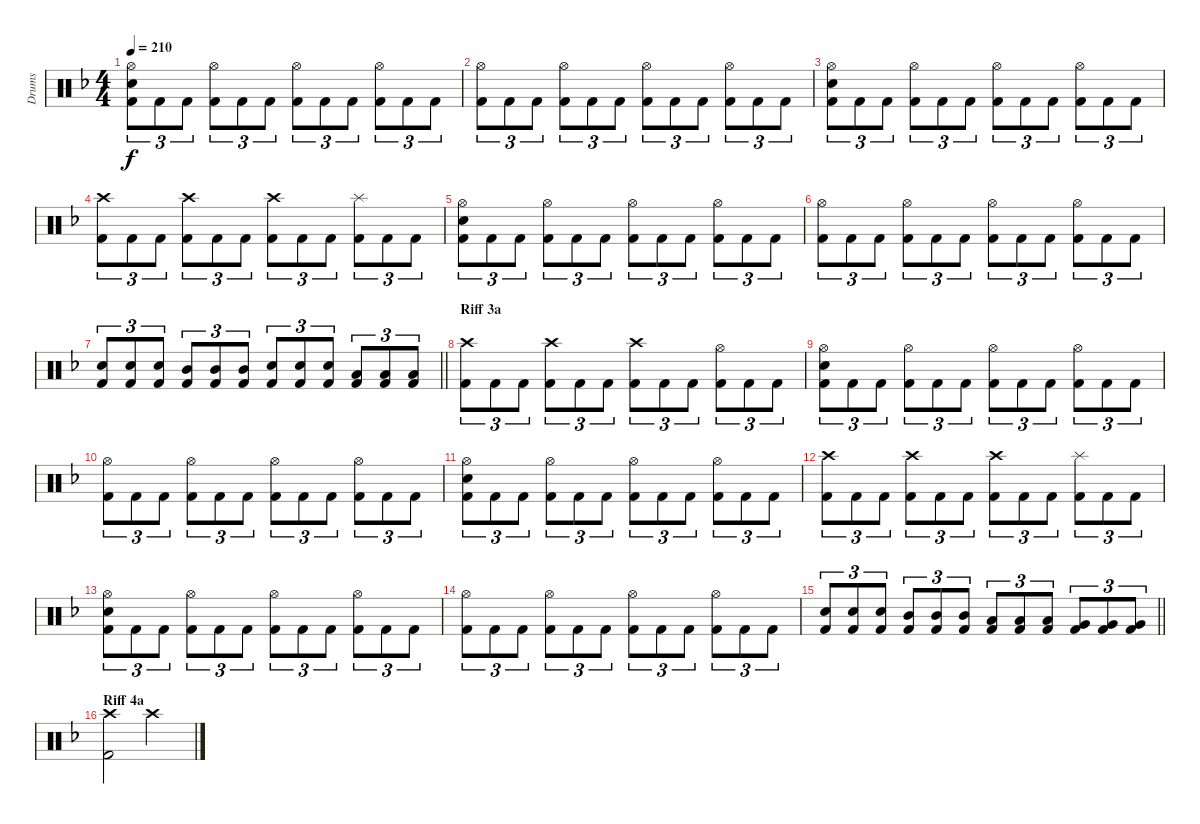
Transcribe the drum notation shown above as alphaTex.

\track ("Drums" "Drums") {instrument percussion}
\staff {score}
\articulation defaults
\ts (4 4)
\tempo 210
\clef neutral
\ks dminor
("Hi-Hat (open)" "Electric Snare (hit)" "Kick (hit) 2").8{tu (3 2) dy f} "Kick (hit) 2".8{tu (3 2)} "Kick (hit) 2".8{tu (3 2)} ("Hi-Hat (open)" "Kick (hit) 2").8{tu (3 2)} "Kick (hit) 2".8{tu (3 2)} "Kick (hit) 2".8{tu (3 2)} ("Hi-Hat (open)" "Kick (hit) 2").8{tu (3 2)} "Kick (hit) 2".8{tu (3 2)} "Kick (hit) 2".8{tu (3 2)} ("Hi-Hat (open)" "Kick (hit) 2").8{tu (3 2)} "Kick (hit) 2".8{tu (3 2)} "Kick (hit) 2".8{tu (3 2)} |
("Hi-Hat (open)" "Kick (hit) 2").8{tu (3 2)} "Kick (hit) 2".8{tu (3 2)} "Kick (hit) 2".8{tu (3 2)} ("Hi-Hat (open)" "Kick (hit) 2").8{tu (3 2)} "Kick (hit) 2".8{tu (3 2)} "Kick (hit) 2".8{tu (3 2)} ("Hi-Hat (open)" "Kick (hit) 2").8{tu (3 2)} "Kick (hit) 2".8{tu (3 2)} "Kick (hit) 2".8{tu (3 2)} ("Hi-Hat (open)" "Kick (hit) 2").8{tu (3 2)} "Kick (hit) 2".8{tu (3 2)} "Kick (hit) 2".8{tu (3 2)} |
("Hi-Hat (open)" "Electric Snare (hit)" "Kick (hit) 2").8{tu (3 2)} "Kick (hit) 2".8{tu (3 2)} "Kick (hit) 2".8{tu (3 2)} ("Hi-Hat (open)" "Kick (hit) 2").8{tu (3 2)} "Kick (hit) 2".8{tu (3 2)} "Kick (hit) 2".8{tu (3 2)} ("Hi-Hat (open)" "Kick (hit) 2").8{tu (3 2)} "Kick (hit) 2".8{tu (3 2)} "Kick (hit) 2".8{tu (3 2)} ("Hi-Hat (open)" "Kick (hit) 2").8{tu (3 2)} "Kick (hit) 2".8{tu (3 2)} "Kick (hit) 2".8{tu (3 2)} |
("Crash high (hit)" "Kick (hit) 2").8{tu (3 2)} "Kick (hit) 2".8{tu (3 2)} "Kick (hit) 2".8{tu (3 2)} ("Crash high (hit)" "Kick (hit) 2").8{tu (3 2)} "Kick (hit) 2".8{tu (3 2)} "Kick (hit) 2".8{tu (3 2)} ("Crash high (hit)" "Kick (hit) 2").8{tu (3 2)} "Kick (hit) 2".8{tu (3 2)} "Kick (hit) 2".8{tu (3 2)} ("Splash (hit)" "Kick (hit) 2").8{tu (3 2)} "Kick (hit) 2".8{tu (3 2)} "Kick (hit) 2".8{tu (3 2)} |
("Hi-Hat (open)" "Electric Snare (hit)" "Kick (hit) 2").8{tu (3 2)} "Kick (hit) 2".8{tu (3 2)} "Kick (hit) 2".8{tu (3 2)} ("Hi-Hat (open)" "Kick (hit) 2").8{tu (3 2)} "Kick (hit) 2".8{tu (3 2)} "Kick (hit) 2".8{tu (3 2)} ("Hi-Hat (open)" "Kick (hit) 2").8{tu (3 2)} "Kick (hit) 2".8{tu (3 2)} "Kick (hit) 2".8{tu (3 2)} ("Hi-Hat (open)" "Kick (hit) 2").8{tu (3 2)} "Kick (hit) 2".8{tu (3 2)} "Kick (hit) 2".8{tu (3 2)} |
("Hi-Hat (open)" "Kick (hit) 2").8{tu (3 2)} "Kick (hit) 2".8{tu (3 2)} "Kick (hit) 2".8{tu (3 2)} ("Hi-Hat (open)" "Kick (hit) 2").8{tu (3 2)} "Kick (hit) 2".8{tu (3 2)} "Kick (hit) 2".8{tu (3 2)} ("Hi-Hat (open)" "Kick (hit) 2").8{tu (3 2)} "Kick (hit) 2".8{tu (3 2)} "Kick (hit) 2".8{tu (3 2)} ("Hi-Hat (open)" "Kick (hit) 2").8{tu (3 2)} "Kick (hit) 2".8{tu (3 2)} "Kick (hit) 2".8{tu (3 2)} |
\barLineRight lightlight
("Electric Snare (hit)" "Kick (hit) 2").8{tu (3 2)} ("Electric Snare (hit)" "Kick (hit) 2").8{tu (3 2)} ("Electric Snare (hit)" "Kick (hit) 2").8{tu (3 2)} ("Mid Tom (hit)" "Kick (hit) 2").8{tu (3 2)} ("Mid Tom (hit)" "Kick (hit) 2").8{tu (3 2)} ("Mid Tom (hit)" "Kick (hit) 2").8{tu (3 2)} ("Electric Snare (hit)" "Kick (hit) 2").8{tu (3 2)} ("Electric Snare (hit)" "Kick (hit) 2").8{tu (3 2)} ("Electric Snare (hit)" "Kick (hit) 2").8{tu (3 2)} ("Low Tom (hit)" "Kick (hit) 2").8{tu (3 2)} ("Low Tom (hit)" "Kick (hit) 2").8{tu (3 2)} ("Low Tom (hit)" "Kick (hit) 2").8{tu (3 2)} |
\section ("" "Riff 3a")
("Crash high (hit)" "Kick (hit) 2").8{tu (3 2)} "Kick (hit) 2".8{tu (3 2)} "Kick (hit) 2".8{tu (3 2)} ("Crash high (hit)" "Kick (hit) 2").8{tu (3 2)} "Kick (hit) 2".8{tu (3 2)} "Kick (hit) 2".8{tu (3 2)} ("Crash high (hit)" "Kick (hit) 2").8{tu (3 2)} "Kick (hit) 2".8{tu (3 2)} "Kick (hit) 2".8{tu (3 2)} ("Hi-Hat (open)" "Kick (hit) 2").8{tu (3 2)} "Kick (hit) 2".8{tu (3 2)} "Kick (hit) 2".8{tu (3 2)} |
("Hi-Hat (open)" "Electric Snare (hit)" "Kick (hit) 2").8{tu (3 2)} "Kick (hit) 2".8{tu (3 2)} "Kick (hit) 2".8{tu (3 2)} ("Hi-Hat (open)" "Kick (hit) 2").8{tu (3 2)} "Kick (hit) 2".8{tu (3 2)} "Kick (hit) 2".8{tu (3 2)} ("Hi-Hat (open)" "Kick (hit) 2").8{tu (3 2)} "Kick (hit) 2".8{tu (3 2)} "Kick (hit) 2".8{tu (3 2)} ("Hi-Hat (open)" "Kick (hit) 2").8{tu (3 2)} "Kick (hit) 2".8{tu (3 2)} "Kick (hit) 2".8{tu (3 2)} |
("Hi-Hat (open)" "Kick (hit) 2").8{tu (3 2)} "Kick (hit) 2".8{tu (3 2)} "Kick (hit) 2".8{tu (3 2)} ("Hi-Hat (open)" "Kick (hit) 2").8{tu (3 2)} "Kick (hit) 2".8{tu (3 2)} "Kick (hit) 2".8{tu (3 2)} ("Hi-Hat (open)" "Kick (hit) 2").8{tu (3 2)} "Kick (hit) 2".8{tu (3 2)} "Kick (hit) 2".8{tu (3 2)} ("Hi-Hat (open)" "Kick (hit) 2").8{tu (3 2)} "Kick (hit) 2".8{tu (3 2)} "Kick (hit) 2".8{tu (3 2)} |
("Hi-Hat (open)" "Electric Snare (hit)" "Kick (hit) 2").8{tu (3 2)} "Kick (hit) 2".8{tu (3 2)} "Kick (hit) 2".8{tu (3 2)} ("Hi-Hat (open)" "Kick (hit) 2").8{tu (3 2)} "Kick (hit) 2".8{tu (3 2)} "Kick (hit) 2".8{tu (3 2)} ("Hi-Hat (open)" "Kick (hit) 2").8{tu (3 2)} "Kick (hit) 2".8{tu (3 2)} "Kick (hit) 2".8{tu (3 2)} ("Hi-Hat (open)" "Kick (hit) 2").8{tu (3 2)} "Kick (hit) 2".8{tu (3 2)} "Kick (hit) 2".8{tu (3 2)} |
("Crash high (hit)" "Kick (hit) 2").8{tu (3 2)} "Kick (hit) 2".8{tu (3 2)} "Kick (hit) 2".8{tu (3 2)} ("Crash high (hit)" "Kick (hit) 2").8{tu (3 2)} "Kick (hit) 2".8{tu (3 2)} "Kick (hit) 2".8{tu (3 2)} ("Crash high (hit)" "Kick (hit) 2").8{tu (3 2)} "Kick (hit) 2".8{tu (3 2)} "Kick (hit) 2".8{tu (3 2)} ("Splash (hit)" "Kick (hit) 2").8{tu (3 2)} "Kick (hit) 2".8{tu (3 2)} "Kick (hit) 2".8{tu (3 2)} |
("Hi-Hat (open)" "Electric Snare (hit)" "Kick (hit) 2").8{tu (3 2)} "Kick (hit) 2".8{tu (3 2)} "Kick (hit) 2".8{tu (3 2)} ("Hi-Hat (open)" "Kick (hit) 2").8{tu (3 2)} "Kick (hit) 2".8{tu (3 2)} "Kick (hit) 2".8{tu (3 2)} ("Hi-Hat (open)" "Kick (hit) 2").8{tu (3 2)} "Kick (hit) 2".8{tu (3 2)} "Kick (hit) 2".8{tu (3 2)} ("Hi-Hat (open)" "Kick (hit) 2").8{tu (3 2)} "Kick (hit) 2".8{tu (3 2)} "Kick (hit) 2".8{tu (3 2)} |
("Hi-Hat (open)" "Kick (hit) 2").8{tu (3 2)} "Kick (hit) 2".8{tu (3 2)} "Kick (hit) 2".8{tu (3 2)} ("Hi-Hat (open)" "Kick (hit) 2").8{tu (3 2)} "Kick (hit) 2".8{tu (3 2)} "Kick (hit) 2".8{tu (3 2)} ("Hi-Hat (open)" "Kick (hit) 2").8{tu (3 2)} "Kick (hit) 2".8{tu (3 2)} "Kick (hit) 2".8{tu (3 2)} ("Hi-Hat (open)" "Kick (hit) 2").8{tu (3 2)} "Kick (hit) 2".8{tu (3 2)} "Kick (hit) 2".8{tu (3 2)} |
\barLineRight lightlight
("Electric Snare (hit)" "Kick (hit) 2").8{tu (3 2)} ("Electric Snare (hit)" "Kick (hit) 2").8{tu (3 2)} ("Electric Snare (hit)" "Kick (hit) 2").8{tu (3 2)} ("Mid Tom (hit)" "Kick (hit) 2").8{tu (3 2)} ("Mid Tom (hit)" "Kick (hit) 2").8{tu (3 2)} ("Mid Tom (hit)" "Kick (hit) 2").8{tu (3 2)} ("Low Tom (hit)" "Kick (hit) 2").8{tu (3 2)} ("Low Tom (hit)" "Kick (hit) 2").8{tu (3 2)} ("Low Tom (hit)" "Kick (hit) 2").8{tu (3 2)} ("Very Low Tom (hit)" "Kick (hit) 2").8{tu (3 2)} ("Very Low Tom (hit)" "Kick (hit) 2").8{tu (3 2)} ("Very Low Tom (hit)" "Kick (hit) 2").8{tu (3 2)} |
\section ("" "Riff 4a")
("Crash high (hit)" "Kick (hit) 2").2 "Crash high (hit)".2
